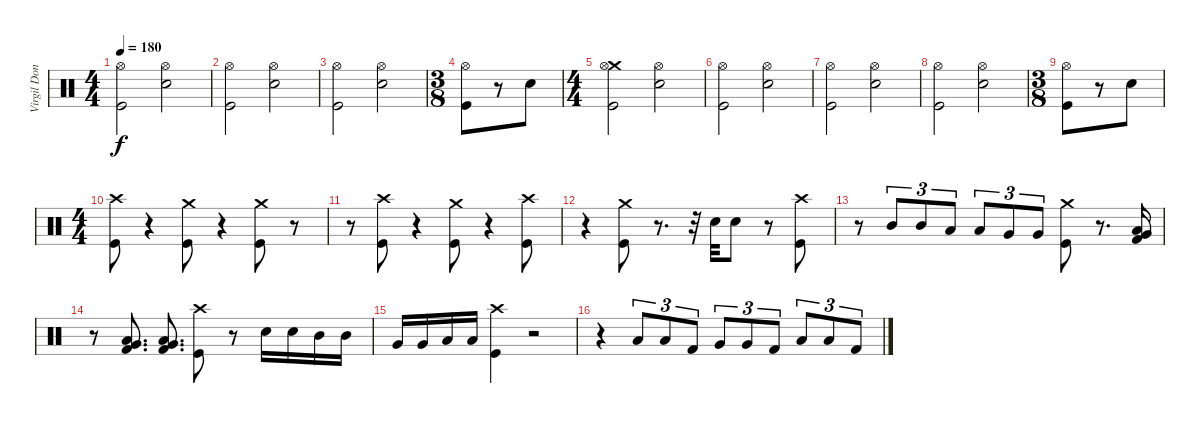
\track ("Virgil Donati" "Virgil Don") {instrument percussion}
\staff {score}
\articulation defaults
\ts (4 4)
\tempo 180
\clef neutral
\ks c
("Hi-Hat (open)" "Kick (hit)").2{dy f} ("Hi-Hat (open)" "Electric Snare (hit)").2 |
("Hi-Hat (open)" "Kick (hit)").2 ("Hi-Hat (open)" "Electric Snare (hit)").2 |
("Hi-Hat (open)" "Kick (hit)").2 ("Hi-Hat (open)" "Electric Snare (hit)").2 |
\ts (3 8)
("Hi-Hat (open)" "Kick (hit)").8 r.8 "Electric Snare (hit)".8 |
\ts (4 4)
("Crash medium (hit)" "Hi-Hat (open)" "Kick (hit)").2 ("Hi-Hat (open)" "Electric Snare (hit)").2 |
("Hi-Hat (open)" "Kick (hit)").2 ("Hi-Hat (open)" "Electric Snare (hit)").2 |
("Hi-Hat (open)" "Kick (hit)").2 ("Hi-Hat (open)" "Electric Snare (hit)").2 |
("Hi-Hat (open)" "Kick (hit)").2 ("Hi-Hat (open)" "Electric Snare (hit)").2 |
\ts (3 8)
("Hi-Hat (open)" "Kick (hit)").8 r.8 "Electric Snare (hit)".8 |
\ts (4 4)
("Crash high (hit)" "Kick (hit)").8 r.4 ("Crash medium (hit)" "Kick (hit)").8 r.4 ("Crash medium (hit)" "Kick (hit)").8 r.8 |
r.8 ("Crash high (hit)" "Kick (hit)").8 r.4 ("Crash medium (hit)" "Kick (hit)").8 r.4 ("Crash high (hit)" "Kick (hit)").8 |
r.4 ("Crash medium (hit)" "Kick (hit)").8 r.8{d} r.32 "Electric Snare (hit)".32 "Electric Snare (hit)".8 r.8 ("Crash high (hit)" "Kick (hit)").8 |
r.8 "Mid Tom (hit)".8{tu (3 2)} "Mid Tom (hit)".8{tu (3 2)} "Low Tom (hit)".8{tu (3 2)} "Low Tom (hit)".8{tu (3 2)} "Very Low Tom (hit)".8{tu (3 2)} "Very Low Tom (hit)".8{tu (3 2)} ("Crash medium (hit)" "Kick (hit)").8 r.8{d} ("Low Floor Tom (hit)" "Very Low Tom (hit)" "Kick (hit) 2").16 |
r.8 ("Low Floor Tom (hit)" "Very Low Tom (hit)" "Kick (hit) 2").8{d} ("Low Floor Tom (hit)" "Very Low Tom (hit)" "Kick (hit) 2").8{d} ("Crash high (hit)" "Kick (hit)").8 r.8 "Electric Snare (hit)".16 "Electric Snare (hit)".16 "Mid Tom (hit)".16 "Mid Tom (hit)".16 |
"Very Low Tom (hit)".16 "Very Low Tom (hit)".16 "Low Floor Tom (hit)".16 "Low Floor Tom (hit)".16 ("Crash high (hit)" "Kick (hit)").4 r.2 |
r.4 "Low Floor Tom (hit)".8{tu (3 2)} "Low Floor Tom (hit)".8{tu (3 2)} "Kick (hit) 2".8{tu (3 2)} "Very Low Tom (hit)".8{tu (3 2)} "Very Low Tom (hit)".8{tu (3 2)} "Kick (hit) 2".8{tu (3 2)} "Low Tom (hit)".8{tu (3 2)} "Low Tom (hit)".8{tu (3 2)} "Kick (hit) 2".8{tu (3 2)}
